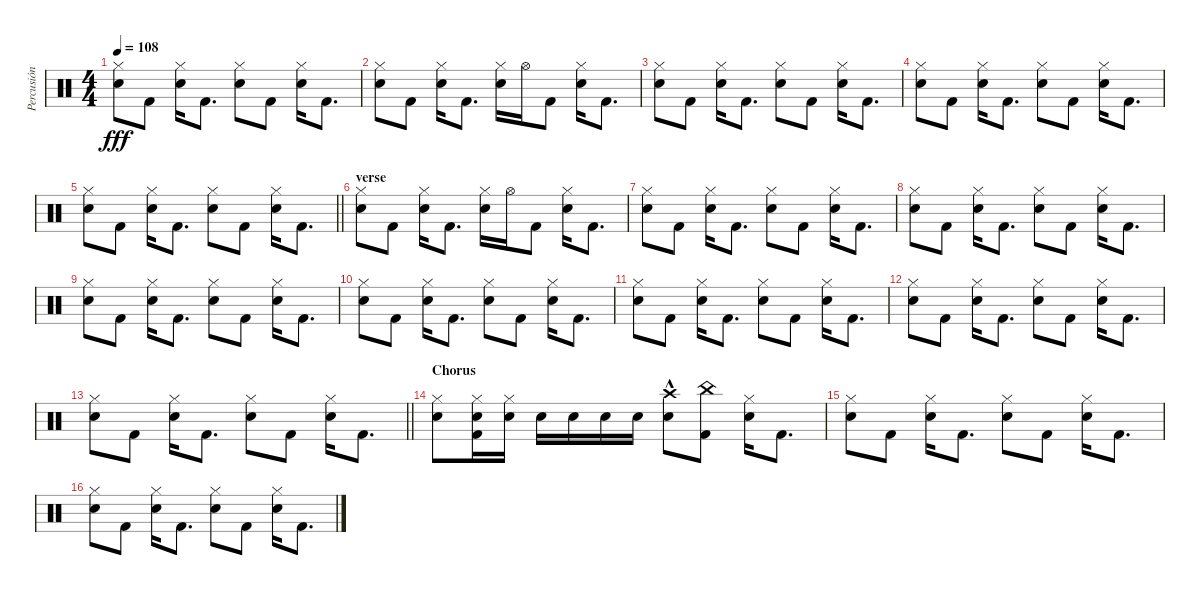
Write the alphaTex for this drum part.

\track ("Percusión" "Percusión") {instrument percussion}
\staff {score}
\articulation defaults
\ts (4 4)
\tempo 108
\clef neutral
\ks c
("Snare (hit) 2" "Hi-Hat (closed)").8{dy fff} "Kick (hit) 2".8 ("Snare (hit) 2" "Hi-Hat (closed)").16 "Kick (hit) 2".8{d} ("Snare (hit) 2" "Hi-Hat (closed)").8 "Kick (hit) 2".8 ("Snare (hit) 2" "Hi-Hat (closed)").16 "Kick (hit) 2".8{d} |
("Snare (hit) 2" "Hi-Hat (closed)").8 "Kick (hit) 2".8 ("Snare (hit) 2" "Hi-Hat (closed)").16 "Kick (hit) 2".8{d} ("Snare (hit) 2" "Hi-Hat (closed)").16 "Hi-Hat (open)".16 "Kick (hit) 2".8 ("Snare (hit) 2" "Hi-Hat (closed)").16 "Kick (hit) 2".8{d} |
("Snare (hit) 2" "Hi-Hat (closed)").8 "Kick (hit) 2".8 ("Snare (hit) 2" "Hi-Hat (closed)").16 "Kick (hit) 2".8{d} ("Snare (hit) 2" "Hi-Hat (closed)").8 "Kick (hit) 2".8 ("Snare (hit) 2" "Hi-Hat (closed)").16 "Kick (hit) 2".8{d} |
("Snare (hit) 2" "Hi-Hat (closed)").8 "Kick (hit) 2".8 ("Snare (hit) 2" "Hi-Hat (closed)").16 "Kick (hit) 2".8{d} ("Snare (hit) 2" "Hi-Hat (closed)").8 "Kick (hit) 2".8 ("Snare (hit) 2" "Hi-Hat (closed)").16 "Kick (hit) 2".8{d} |
\barLineRight lightlight
("Snare (hit) 2" "Hi-Hat (closed)").8 "Kick (hit) 2".8 ("Snare (hit) 2" "Hi-Hat (closed)").16 "Kick (hit) 2".8{d} ("Snare (hit) 2" "Hi-Hat (closed)").8 "Kick (hit) 2".8 ("Snare (hit) 2" "Hi-Hat (closed)").16 "Kick (hit) 2".8{d} |
\section ("" "verse")
("Snare (hit) 2" "Hi-Hat (closed)").8 "Kick (hit) 2".8 ("Snare (hit) 2" "Hi-Hat (closed)").16 "Kick (hit) 2".8{d} ("Snare (hit) 2" "Hi-Hat (closed)").16 "Hi-Hat (open)".16 "Kick (hit) 2".8 ("Snare (hit) 2" "Hi-Hat (closed)").16 "Kick (hit) 2".8{d} |
("Snare (hit) 2" "Hi-Hat (closed)").8 "Kick (hit) 2".8 ("Snare (hit) 2" "Hi-Hat (closed)").16 "Kick (hit) 2".8{d} ("Snare (hit) 2" "Hi-Hat (closed)").8 "Kick (hit) 2".8 ("Snare (hit) 2" "Hi-Hat (closed)").16 "Kick (hit) 2".8{d} |
("Snare (hit) 2" "Hi-Hat (closed)").8 "Kick (hit) 2".8 ("Snare (hit) 2" "Hi-Hat (closed)").16 "Kick (hit) 2".8{d} ("Snare (hit) 2" "Hi-Hat (closed)").8 "Kick (hit) 2".8 ("Snare (hit) 2" "Hi-Hat (closed)").16 "Kick (hit) 2".8{d} |
("Snare (hit) 2" "Hi-Hat (closed)").8 "Kick (hit) 2".8 ("Snare (hit) 2" "Hi-Hat (closed)").16 "Kick (hit) 2".8{d} ("Snare (hit) 2" "Hi-Hat (closed)").8 "Kick (hit) 2".8 ("Snare (hit) 2" "Hi-Hat (closed)").16 "Kick (hit) 2".8{d} |
("Snare (hit) 2" "Hi-Hat (closed)").8 "Kick (hit) 2".8 ("Snare (hit) 2" "Hi-Hat (closed)").16 "Kick (hit) 2".8{d} ("Snare (hit) 2" "Hi-Hat (closed)").8 "Kick (hit) 2".8 ("Snare (hit) 2" "Hi-Hat (closed)").16 "Kick (hit) 2".8{d} |
("Snare (hit) 2" "Hi-Hat (closed)").8 "Kick (hit) 2".8 ("Snare (hit) 2" "Hi-Hat (closed)").16 "Kick (hit) 2".8{d} ("Snare (hit) 2" "Hi-Hat (closed)").8 "Kick (hit) 2".8 ("Snare (hit) 2" "Hi-Hat (closed)").16 "Kick (hit) 2".8{d} |
("Snare (hit) 2" "Hi-Hat (closed)").8 "Kick (hit) 2".8 ("Snare (hit) 2" "Hi-Hat (closed)").16 "Kick (hit) 2".8{d} ("Snare (hit) 2" "Hi-Hat (closed)").8 "Kick (hit) 2".8 ("Snare (hit) 2" "Hi-Hat (closed)").16 "Kick (hit) 2".8{d} |
\barLineRight lightlight
("Snare (hit) 2" "Hi-Hat (closed)").8 "Kick (hit) 2".8 ("Snare (hit) 2" "Hi-Hat (closed)").16 "Kick (hit) 2".8{d} ("Snare (hit) 2" "Hi-Hat (closed)").8 "Kick (hit) 2".8 ("Snare (hit) 2" "Hi-Hat (closed)").16 "Kick (hit) 2".8{d} |
\section ("" "Chorus")
("Snare (hit) 2" "Hi-Hat (closed)").8 ("Snare (hit) 2" "Hi-Hat (closed)" "Kick (hit) 2").16 ("Snare (hit) 2" "Hi-Hat (closed)").16 "Snare (hit) 2".16 "Snare (hit) 2".16 "Snare (hit) 2".16 "Snare (hit) 2".16 ("Snare (hit) 2" "Crash high (hit)"{hac}).8 ("China (hit)" "Kick (hit) 2").8 ("Snare (hit) 2" "Hi-Hat (closed)").16 "Kick (hit) 2".8{d} |
("Snare (hit) 2" "Hi-Hat (closed)").8 "Kick (hit) 2".8 ("Snare (hit) 2" "Hi-Hat (closed)").16 "Kick (hit) 2".8{d} ("Snare (hit) 2" "Hi-Hat (closed)").8 "Kick (hit) 2".8 ("Snare (hit) 2" "Hi-Hat (closed)").16 "Kick (hit) 2".8{d} |
("Snare (hit) 2" "Hi-Hat (closed)").8 "Kick (hit) 2".8 ("Snare (hit) 2" "Hi-Hat (closed)").16 "Kick (hit) 2".8{d} ("Snare (hit) 2" "Hi-Hat (closed)").8 "Kick (hit) 2".8 ("Snare (hit) 2" "Hi-Hat (closed)").16 "Kick (hit) 2".8{d}
